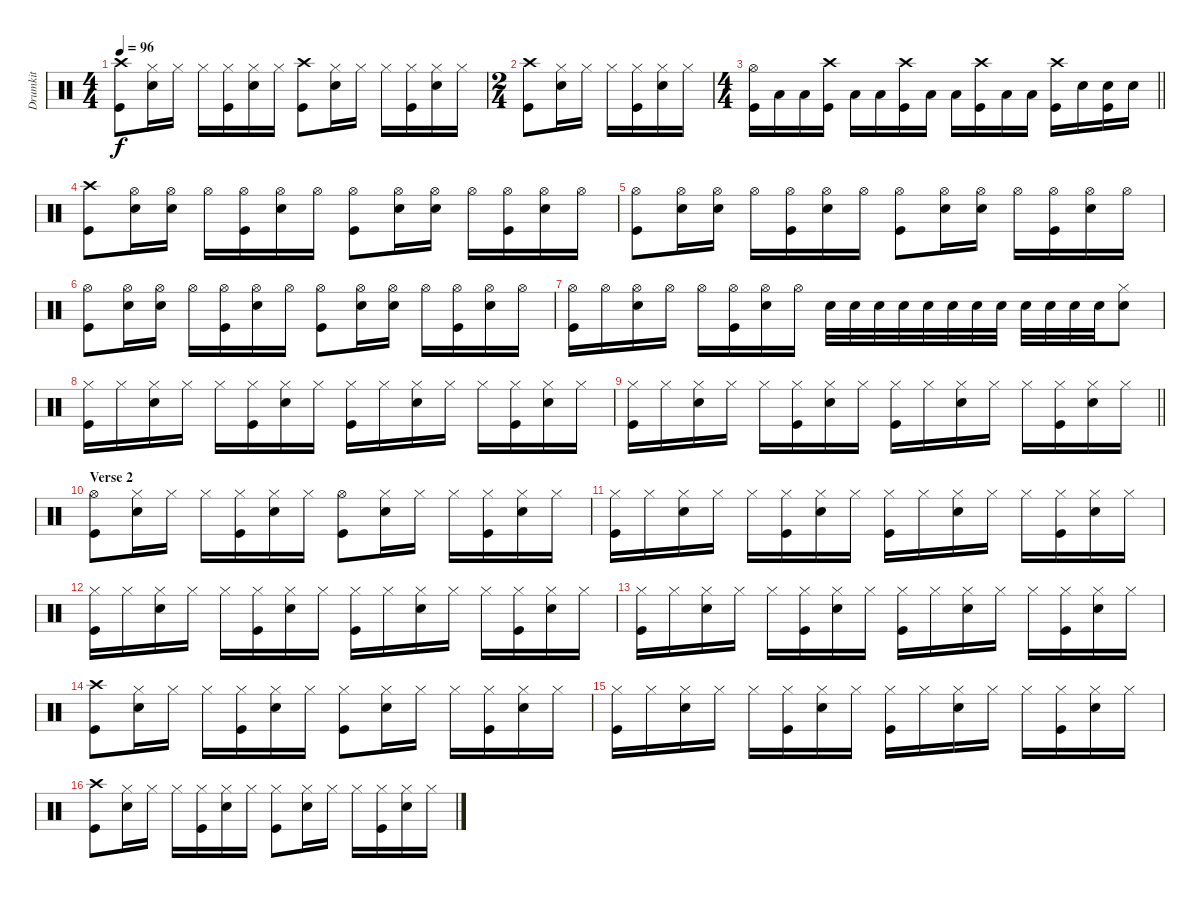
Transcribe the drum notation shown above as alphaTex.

\track ("Drumkit" "Drumkit") {instrument percussion}
\staff {score}
\articulation defaults
\ts (4 4)
\tempo 96
\clef neutral
\ks c
("Crash high (hit)" "Kick (hit)").8{dy f} ("Hi-Hat (closed)" "Snare (hit) 2").16 "Hi-Hat (closed)".16 "Hi-Hat (closed)".16 ("Hi-Hat (closed)" "Kick (hit)").16 ("Hi-Hat (closed)" "Snare (hit) 2").16 "Hi-Hat (closed)".16 ("Crash high (hit)" "Kick (hit)").8 ("Hi-Hat (closed)" "Snare (hit) 2").16 "Hi-Hat (closed)".16 "Hi-Hat (closed)".16 ("Hi-Hat (closed)" "Kick (hit)").16 ("Hi-Hat (closed)" "Snare (hit) 2").16 "Hi-Hat (closed)".16 |
\ts (2 4)
("Crash high (hit)" "Kick (hit)").8 ("Hi-Hat (closed)" "Snare (hit) 2").16 "Hi-Hat (closed)".16 "Hi-Hat (closed)".16 ("Hi-Hat (closed)" "Kick (hit)").16 ("Hi-Hat (closed)" "Snare (hit) 2").16 "Hi-Hat (closed)".16 |
\ts (4 4)
\barLineRight lightlight
("Hi-Hat (open)" "Kick (hit)").16 "Low Tom (hit)".16 "Low Tom (hit)".16 ("Crash high (hit)" "Kick (hit)").16 "Low Tom (hit)".16 "Low Tom (hit)".16 ("Crash high (hit)" "Kick (hit)").16 "Low Tom (hit)".16 "Low Tom (hit)".16 ("Crash high (hit)" "Kick (hit)").16 "Low Tom (hit)".16 "Low Tom (hit)".16 ("Crash high (hit)" "Kick (hit)").16 "Snare (hit) 2".16 ("Snare (hit) 2" "Kick (hit)").16 "Snare (hit) 2".16 |
("Crash high (hit)" "Kick (hit)").8 ("Hi-Hat (open)" "Snare (hit) 2").16 ("Hi-Hat (open)" "Snare (hit) 2").16 "Hi-Hat (open)".16 ("Hi-Hat (open)" "Kick (hit)").16 ("Hi-Hat (open)" "Snare (hit) 2").16 "Hi-Hat (open)".16 ("Hi-Hat (open)" "Kick (hit)").8 ("Hi-Hat (open)" "Snare (hit) 2").16 ("Hi-Hat (open)" "Snare (hit) 2").16 "Hi-Hat (open)".16 ("Hi-Hat (open)" "Kick (hit)").16 ("Hi-Hat (open)" "Snare (hit) 2").16 "Hi-Hat (open)".16 |
("Hi-Hat (open)" "Kick (hit)").8 ("Hi-Hat (open)" "Snare (hit) 2").16 ("Hi-Hat (open)" "Snare (hit) 2").16 "Hi-Hat (open)".16 ("Hi-Hat (open)" "Kick (hit)").16 ("Hi-Hat (open)" "Snare (hit) 2").16 "Hi-Hat (open)".16 ("Hi-Hat (open)" "Kick (hit)").8 ("Hi-Hat (open)" "Snare (hit) 2").16 ("Hi-Hat (open)" "Snare (hit) 2").16 "Hi-Hat (open)".16 ("Hi-Hat (open)" "Kick (hit)").16 ("Hi-Hat (open)" "Snare (hit) 2").16 "Hi-Hat (open)".16 |
("Hi-Hat (open)" "Kick (hit)").8 ("Hi-Hat (open)" "Snare (hit) 2").16 ("Hi-Hat (open)" "Snare (hit) 2").16 "Hi-Hat (open)".16 ("Hi-Hat (open)" "Kick (hit)").16 ("Hi-Hat (open)" "Snare (hit) 2").16 "Hi-Hat (open)".16 ("Hi-Hat (open)" "Kick (hit)").8 ("Hi-Hat (open)" "Snare (hit) 2").16 ("Hi-Hat (open)" "Snare (hit) 2").16 "Hi-Hat (open)".16 ("Hi-Hat (open)" "Kick (hit)").16 ("Hi-Hat (open)" "Snare (hit) 2").16 "Hi-Hat (open)".16 |
("Hi-Hat (open)" "Kick (hit)").16 "Hi-Hat (open)".16 ("Hi-Hat (open)" "Snare (hit) 2").16 "Hi-Hat (open)".16 "Hi-Hat (open)".16 ("Hi-Hat (open)" "Kick (hit)").16 ("Hi-Hat (open)" "Snare (hit) 2").16 "Hi-Hat (open)".16 "Snare (hit) 2".32 "Snare (hit) 2".32 "Snare (hit) 2".32 "Snare (hit) 2".32 "Snare (hit) 2".32 "Snare (hit) 2".32 "Snare (hit) 2".32 "Snare (hit) 2".32 "Snare (hit) 2".32 "Snare (hit) 2".32 "Snare (hit) 2".32 "Snare (hit) 2".32 ("Hi-Hat (closed)" "Snare (hit) 2").8 |
("Hi-Hat (closed)" "Kick (hit)").16 "Hi-Hat (closed)".16 ("Hi-Hat (closed)" "Snare (hit) 2").16 "Hi-Hat (closed)".16 "Hi-Hat (closed)".16 ("Hi-Hat (closed)" "Kick (hit)").16 ("Hi-Hat (closed)" "Snare (hit) 2").16 "Hi-Hat (closed)".16 ("Hi-Hat (closed)" "Kick (hit)").16 "Hi-Hat (closed)".16 ("Hi-Hat (closed)" "Snare (hit) 2").16 "Hi-Hat (closed)".16 "Hi-Hat (closed)".16 ("Hi-Hat (closed)" "Kick (hit)").16 ("Hi-Hat (closed)" "Snare (hit) 2").16 "Hi-Hat (closed)".16 |
\barLineRight lightlight
("Hi-Hat (closed)" "Kick (hit)").16 "Hi-Hat (closed)".16 ("Hi-Hat (closed)" "Snare (hit) 2").16 "Hi-Hat (closed)".16 "Hi-Hat (closed)".16 ("Hi-Hat (closed)" "Kick (hit)").16 ("Hi-Hat (closed)" "Snare (hit) 2").16 "Hi-Hat (closed)".16 ("Hi-Hat (closed)" "Kick (hit)").16 "Hi-Hat (closed)".16 ("Hi-Hat (closed)" "Snare (hit) 2").16 "Hi-Hat (closed)".16 "Hi-Hat (closed)".16 ("Hi-Hat (closed)" "Kick (hit)").16 ("Hi-Hat (closed)" "Snare (hit) 2").16 "Hi-Hat (closed)".16 |
\section ("" "Verse 2")
("Hi-Hat (open)" "Kick (hit)").8 ("Hi-Hat (closed)" "Snare (hit) 2").16 "Hi-Hat (closed)".16 "Hi-Hat (closed)".16 ("Hi-Hat (closed)" "Kick (hit)").16 ("Hi-Hat (closed)" "Snare (hit) 2").16 "Hi-Hat (closed)".16 ("Hi-Hat (open)" "Kick (hit)").8 ("Hi-Hat (closed)" "Snare (hit) 2").16 "Hi-Hat (closed)".16 "Hi-Hat (closed)".16 ("Hi-Hat (closed)" "Kick (hit)").16 ("Hi-Hat (closed)" "Snare (hit) 2").16 "Hi-Hat (closed)".16 |
("Hi-Hat (closed)" "Kick (hit)").16 "Hi-Hat (closed)".16 ("Hi-Hat (closed)" "Snare (hit) 2").16 "Hi-Hat (closed)".16 "Hi-Hat (closed)".16 ("Hi-Hat (closed)" "Kick (hit)").16 ("Hi-Hat (closed)" "Snare (hit) 2").16 "Hi-Hat (closed)".16 ("Hi-Hat (closed)" "Kick (hit)").16 "Hi-Hat (closed)".16 ("Hi-Hat (closed)" "Snare (hit) 2").16 "Hi-Hat (closed)".16 "Hi-Hat (closed)".16 ("Hi-Hat (closed)" "Kick (hit)").16 ("Hi-Hat (closed)" "Snare (hit) 2").16 "Hi-Hat (closed)".16 |
("Hi-Hat (closed)" "Kick (hit)").16 "Hi-Hat (closed)".16 ("Hi-Hat (closed)" "Snare (hit) 2").16 "Hi-Hat (closed)".16 "Hi-Hat (closed)".16 ("Hi-Hat (closed)" "Kick (hit)").16 ("Hi-Hat (closed)" "Snare (hit) 2").16 "Hi-Hat (closed)".16 ("Hi-Hat (closed)" "Kick (hit)").16 "Hi-Hat (closed)".16 ("Hi-Hat (closed)" "Snare (hit) 2").16 "Hi-Hat (closed)".16 "Hi-Hat (closed)".16 ("Hi-Hat (closed)" "Kick (hit)").16 ("Hi-Hat (closed)" "Snare (hit) 2").16 "Hi-Hat (closed)".16 |
("Hi-Hat (closed)" "Kick (hit)").16 "Hi-Hat (closed)".16 ("Hi-Hat (closed)" "Snare (hit) 2").16 "Hi-Hat (closed)".16 "Hi-Hat (closed)".16 ("Hi-Hat (closed)" "Kick (hit)").16 ("Hi-Hat (closed)" "Snare (hit) 2").16 "Hi-Hat (closed)".16 ("Hi-Hat (closed)" "Kick (hit)").16 "Hi-Hat (closed)".16 ("Hi-Hat (closed)" "Snare (hit) 2").16 "Hi-Hat (closed)".16 "Hi-Hat (closed)".16 ("Hi-Hat (closed)" "Kick (hit)").16 ("Hi-Hat (closed)" "Snare (hit) 2").16 "Hi-Hat (closed)".16 |
("Crash high (hit)" "Kick (hit)").8 ("Hi-Hat (closed)" "Snare (hit) 2").16 "Hi-Hat (closed)".16 "Hi-Hat (closed)".16 ("Hi-Hat (closed)" "Kick (hit)").16 ("Hi-Hat (closed)" "Snare (hit) 2").16 "Hi-Hat (closed)".16 ("Hi-Hat (closed)" "Kick (hit)").8 ("Hi-Hat (closed)" "Snare (hit) 2").16 "Hi-Hat (closed)".16 "Hi-Hat (closed)".16 ("Hi-Hat (closed)" "Kick (hit)").16 ("Hi-Hat (closed)" "Snare (hit) 2").16 "Hi-Hat (closed)".16 |
("Hi-Hat (closed)" "Kick (hit)").16 "Hi-Hat (closed)".16 ("Hi-Hat (closed)" "Snare (hit) 2").16 "Hi-Hat (closed)".16 "Hi-Hat (closed)".16 ("Hi-Hat (closed)" "Kick (hit)").16 ("Hi-Hat (closed)" "Snare (hit) 2").16 "Hi-Hat (closed)".16 ("Hi-Hat (closed)" "Kick (hit)").16 "Hi-Hat (closed)".16 ("Hi-Hat (closed)" "Snare (hit) 2").16 "Hi-Hat (closed)".16 "Hi-Hat (closed)".16 ("Hi-Hat (closed)" "Kick (hit)").16 ("Hi-Hat (closed)" "Snare (hit) 2").16 "Hi-Hat (closed)".16 |
("Crash high (hit)" "Kick (hit)").8 ("Hi-Hat (closed)" "Snare (hit) 2").16 "Hi-Hat (closed)".16 "Hi-Hat (closed)".16 ("Hi-Hat (closed)" "Kick (hit)").16 ("Hi-Hat (closed)" "Snare (hit) 2").16 "Hi-Hat (closed)".16 ("Hi-Hat (closed)" "Kick (hit)").8 ("Hi-Hat (closed)" "Snare (hit) 2").16 "Hi-Hat (closed)".16 "Hi-Hat (closed)".16 ("Hi-Hat (closed)" "Kick (hit)").16 ("Hi-Hat (closed)" "Snare (hit) 2").16 "Hi-Hat (closed)".16
